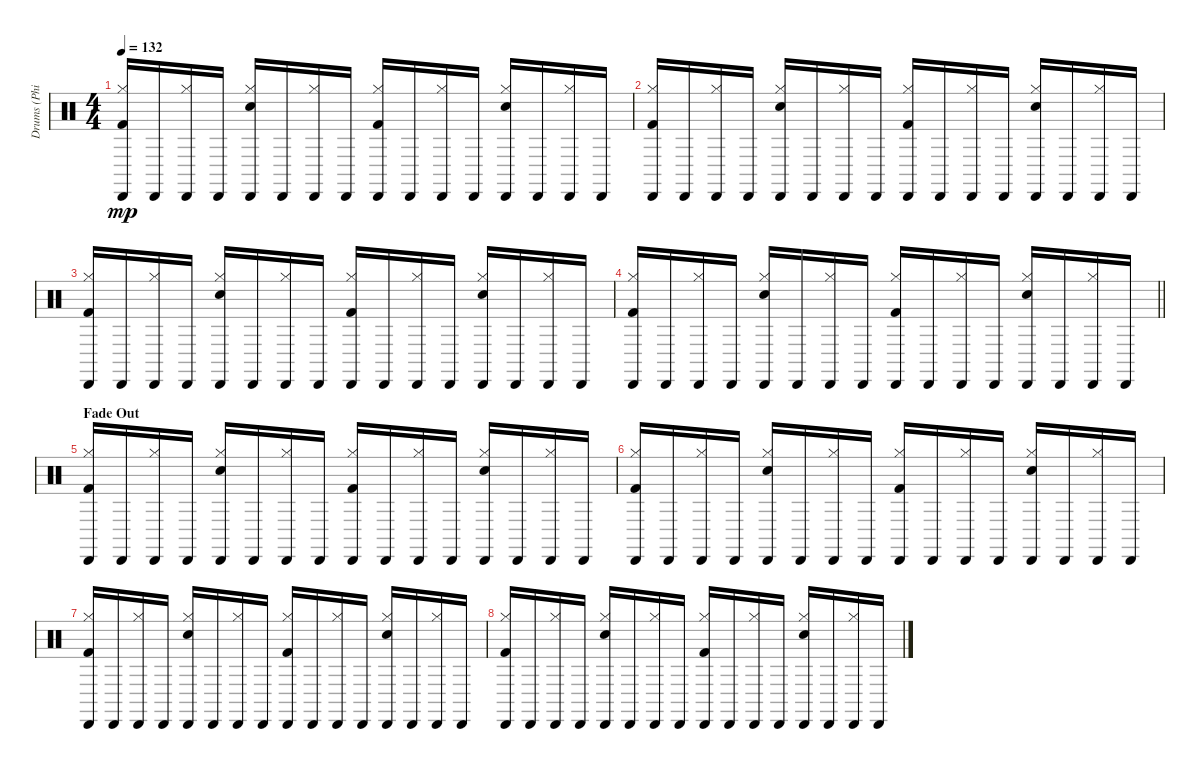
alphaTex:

\track ("Drums (Phil Rudd)" "Drums (Phi") {instrument percussion}
\staff {score}
\articulation defaults
\ts (4 4)
\tempo 132
\clef neutral
\ks c
("Hi-Hat (closed)" "Cabasa (hit)" "Kick (hit) 2").16{dy mp} "Cabasa (hit)".16 ("Hi-Hat (closed)" "Cabasa (hit)").16 "Cabasa (hit)".16 ("Hi-Hat (closed)" "Cabasa (hit)" "Snare (hit) 2").16 "Cabasa (hit)".16 ("Hi-Hat (closed)" "Cabasa (hit)").16 "Cabasa (hit)".16 ("Hi-Hat (closed)" "Cabasa (hit)" "Kick (hit) 2").16 "Cabasa (hit)".16 ("Hi-Hat (closed)" "Cabasa (hit)").16 "Cabasa (hit)".16 ("Hi-Hat (closed)" "Cabasa (hit)" "Snare (hit) 2").16 "Cabasa (hit)".16 ("Hi-Hat (closed)" "Cabasa (hit)").16 "Cabasa (hit)".16 |
("Hi-Hat (closed)" "Cabasa (hit)" "Kick (hit) 2").16 "Cabasa (hit)".16 ("Hi-Hat (closed)" "Cabasa (hit)").16 "Cabasa (hit)".16 ("Hi-Hat (closed)" "Cabasa (hit)" "Snare (hit) 2").16 "Cabasa (hit)".16 ("Hi-Hat (closed)" "Cabasa (hit)").16 "Cabasa (hit)".16 ("Hi-Hat (closed)" "Cabasa (hit)" "Kick (hit) 2").16 "Cabasa (hit)".16 ("Hi-Hat (closed)" "Cabasa (hit)").16 "Cabasa (hit)".16 ("Hi-Hat (closed)" "Cabasa (hit)" "Snare (hit) 2").16 "Cabasa (hit)".16 ("Hi-Hat (closed)" "Cabasa (hit)").16 "Cabasa (hit)".16 |
("Hi-Hat (closed)" "Cabasa (hit)" "Kick (hit) 2").16 "Cabasa (hit)".16 ("Hi-Hat (closed)" "Cabasa (hit)").16 "Cabasa (hit)".16 ("Hi-Hat (closed)" "Cabasa (hit)" "Snare (hit) 2").16 "Cabasa (hit)".16 ("Hi-Hat (closed)" "Cabasa (hit)").16 "Cabasa (hit)".16 ("Hi-Hat (closed)" "Cabasa (hit)" "Kick (hit) 2").16 "Cabasa (hit)".16 ("Hi-Hat (closed)" "Cabasa (hit)").16 "Cabasa (hit)".16 ("Hi-Hat (closed)" "Cabasa (hit)" "Snare (hit) 2").16 "Cabasa (hit)".16 ("Hi-Hat (closed)" "Cabasa (hit)").16 "Cabasa (hit)".16 |
\barLineRight lightlight
("Hi-Hat (closed)" "Cabasa (hit)" "Kick (hit) 2").16 "Cabasa (hit)".16 ("Hi-Hat (closed)" "Cabasa (hit)").16 "Cabasa (hit)".16 ("Hi-Hat (closed)" "Cabasa (hit)" "Snare (hit) 2").16 "Cabasa (hit)".16 ("Hi-Hat (closed)" "Cabasa (hit)").16 "Cabasa (hit)".16 ("Hi-Hat (closed)" "Cabasa (hit)" "Kick (hit) 2").16 "Cabasa (hit)".16 ("Hi-Hat (closed)" "Cabasa (hit)").16 "Cabasa (hit)".16 ("Hi-Hat (closed)" "Cabasa (hit)" "Snare (hit) 2").16 "Cabasa (hit)".16 ("Hi-Hat (closed)" "Cabasa (hit)").16 "Cabasa (hit)".16 |
\section ("" "Fade Out")
("Hi-Hat (closed)" "Cabasa (hit)" "Kick (hit) 2").16 "Cabasa (hit)".16 ("Hi-Hat (closed)" "Cabasa (hit)").16 "Cabasa (hit)".16 ("Hi-Hat (closed)" "Cabasa (hit)" "Snare (hit) 2").16 "Cabasa (hit)".16 ("Hi-Hat (closed)" "Cabasa (hit)").16 "Cabasa (hit)".16 ("Hi-Hat (closed)" "Cabasa (hit)" "Kick (hit) 2").16 "Cabasa (hit)".16 ("Hi-Hat (closed)" "Cabasa (hit)").16 "Cabasa (hit)".16 ("Hi-Hat (closed)" "Cabasa (hit)" "Snare (hit) 2").16 "Cabasa (hit)".16 ("Hi-Hat (closed)" "Cabasa (hit)").16 "Cabasa (hit)".16 |
("Hi-Hat (closed)" "Cabasa (hit)" "Kick (hit) 2").16 "Cabasa (hit)".16 ("Hi-Hat (closed)" "Cabasa (hit)").16 "Cabasa (hit)".16 ("Hi-Hat (closed)" "Cabasa (hit)" "Snare (hit) 2").16 "Cabasa (hit)".16 ("Hi-Hat (closed)" "Cabasa (hit)").16 "Cabasa (hit)".16 ("Hi-Hat (closed)" "Cabasa (hit)" "Kick (hit) 2").16 "Cabasa (hit)".16 ("Hi-Hat (closed)" "Cabasa (hit)").16 "Cabasa (hit)".16 ("Hi-Hat (closed)" "Cabasa (hit)" "Snare (hit) 2").16 "Cabasa (hit)".16 ("Hi-Hat (closed)" "Cabasa (hit)").16 "Cabasa (hit)".16 |
("Hi-Hat (closed)" "Cabasa (hit)" "Kick (hit) 2").16 "Cabasa (hit)".16 ("Hi-Hat (closed)" "Cabasa (hit)").16 "Cabasa (hit)".16 ("Hi-Hat (closed)" "Cabasa (hit)" "Snare (hit) 2").16 "Cabasa (hit)".16 ("Hi-Hat (closed)" "Cabasa (hit)").16 "Cabasa (hit)".16 ("Hi-Hat (closed)" "Cabasa (hit)" "Kick (hit) 2").16 "Cabasa (hit)".16 ("Hi-Hat (closed)" "Cabasa (hit)").16 "Cabasa (hit)".16 ("Hi-Hat (closed)" "Cabasa (hit)" "Snare (hit) 2").16 "Cabasa (hit)".16 ("Hi-Hat (closed)" "Cabasa (hit)").16 "Cabasa (hit)".16 |
("Hi-Hat (closed)" "Cabasa (hit)" "Kick (hit) 2").16 "Cabasa (hit)".16 ("Hi-Hat (closed)" "Cabasa (hit)").16 "Cabasa (hit)".16 ("Hi-Hat (closed)" "Cabasa (hit)" "Snare (hit) 2").16 "Cabasa (hit)".16 ("Hi-Hat (closed)" "Cabasa (hit)").16 "Cabasa (hit)".16 ("Hi-Hat (closed)" "Cabasa (hit)" "Kick (hit) 2").16 "Cabasa (hit)".16 ("Hi-Hat (closed)" "Cabasa (hit)").16 "Cabasa (hit)".16 ("Hi-Hat (closed)" "Cabasa (hit)" "Snare (hit) 2").16 "Cabasa (hit)".16 ("Hi-Hat (closed)" "Cabasa (hit)").16 "Cabasa (hit)".16
